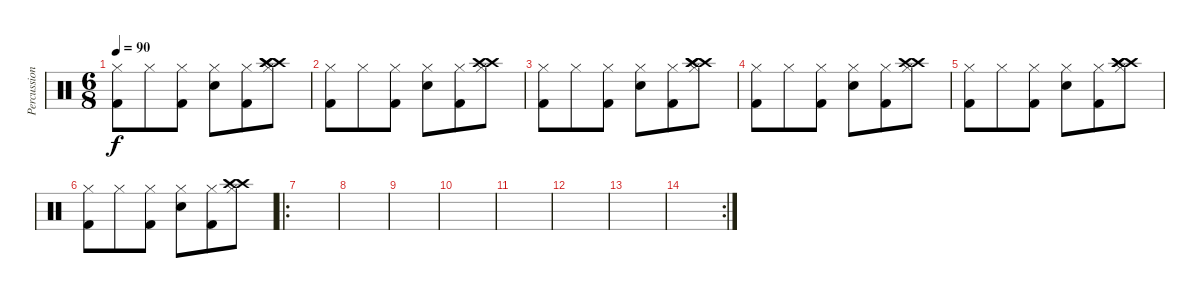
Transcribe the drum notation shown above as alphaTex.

\track ("Percussion" "Percussion") {instrument percussion}
\staff {score}
\articulation defaults
\ts (6 8)
\tempo 90
\clef neutral
\ks c
("Hi-Hat (closed)" "Kick (hit) 2").8{dy f} "Hi-Hat (closed)".8 ("Hi-Hat (closed)" "Kick (hit) 2").8 ("Hi-Hat (closed)" "Electric Snare (hit)").8 ("Hi-Hat (closed)" "Kick (hit) 2").8 ("Hi-Hat (closed)" "Crash high (hit)" "Crash high (hit)" "Crash high (hit)").8 |
("Hi-Hat (closed)" "Kick (hit) 2").8 "Hi-Hat (closed)".8 ("Hi-Hat (closed)" "Kick (hit) 2").8 ("Hi-Hat (closed)" "Electric Snare (hit)").8 ("Hi-Hat (closed)" "Kick (hit) 2").8 ("Hi-Hat (closed)" "Crash high (hit)" "Crash high (hit)").8 |
("Hi-Hat (closed)" "Kick (hit) 2").8 "Hi-Hat (closed)".8 ("Hi-Hat (closed)" "Kick (hit) 2").8 ("Hi-Hat (closed)" "Electric Snare (hit)").8 ("Hi-Hat (closed)" "Kick (hit) 2").8 ("Hi-Hat (closed)" "Crash high (hit)" "Crash high (hit)" "Crash high (hit)").8 |
("Hi-Hat (closed)" "Kick (hit) 2").8 "Hi-Hat (closed)".8 ("Hi-Hat (closed)" "Kick (hit) 2").8 ("Hi-Hat (closed)" "Electric Snare (hit)").8 ("Hi-Hat (closed)" "Kick (hit) 2").8 ("Hi-Hat (closed)" "Crash high (hit)" "Crash high (hit)").8 |
("Hi-Hat (closed)" "Kick (hit) 2").8 "Hi-Hat (closed)".8 ("Hi-Hat (closed)" "Kick (hit) 2").8 ("Hi-Hat (closed)" "Electric Snare (hit)").8 ("Hi-Hat (closed)" "Kick (hit) 2").8 ("Hi-Hat (closed)" "Crash high (hit)" "Crash high (hit)" "Crash high (hit)").8 |
("Hi-Hat (closed)" "Kick (hit) 2").8 "Hi-Hat (closed)".8 ("Hi-Hat (closed)" "Kick (hit) 2").8 ("Hi-Hat (closed)" "Electric Snare (hit)").8 ("Hi-Hat (closed)" "Kick (hit) 2").8 ("Hi-Hat (closed)" "Crash high (hit)" "Crash high (hit)").8 |
\ro
|
|
|
|
|
|
|
\rc 2
